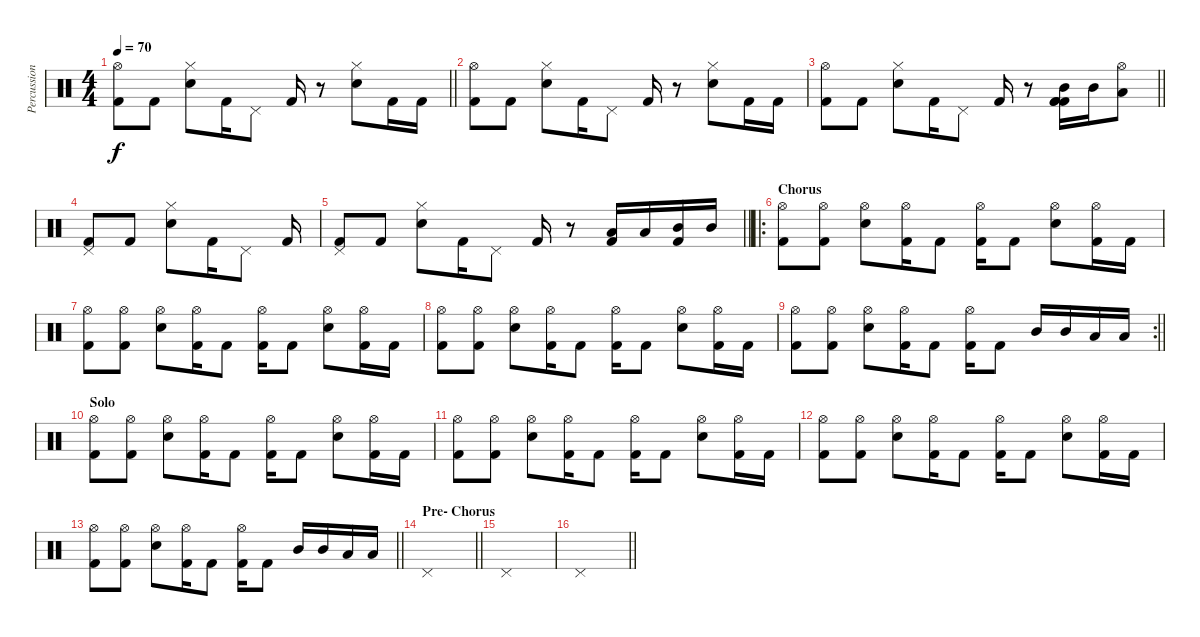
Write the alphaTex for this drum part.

\track ("Percussion" "Percussion") {instrument percussion}
\staff {score}
\articulation defaults
\ts (4 4)
\tempo 70
\clef neutral
\barLineRight lightlight
\ks c
("Kick (hit) 2" "Hi-Hat (open)").8{dy f} "Kick (hit) 2".8 ("Hi-Hat (closed)" "Electric Snare (hit)").8 "Kick (hit) 2".16 "Pedal Hi-Hat (hit)".8 "Kick (hit) 2".16 r.8 ("Hi-Hat (closed)" "Electric Snare (hit)").8 "Kick (hit) 2".16 "Kick (hit) 2".16 |
("Kick (hit) 2" "Hi-Hat (open)").8 "Kick (hit) 2".8 ("Hi-Hat (closed)" "Electric Snare (hit)").8 "Kick (hit) 2".16 "Pedal Hi-Hat (hit)".8 "Kick (hit) 2".16 r.8 ("Hi-Hat (closed)" "Electric Snare (hit)").8 "Kick (hit) 2".16 "Kick (hit) 2".16 |
\barLineRight lightlight
("Kick (hit) 2" "Hi-Hat (open)").8 "Kick (hit) 2".8 ("Hi-Hat (closed)" "Electric Snare (hit)").8 "Kick (hit) 2".16 "Pedal Hi-Hat (hit)".8 "Kick (hit) 2".16 r.8 ("Kick (hit) 2" "Kick (hit) 2" "Mid Tom (hit)" "Kick (hit) 2").16 "Mid Tom (hit)".16 ("Low Tom (hit)" "Hi-Hat (open)").8 |
("Kick (hit) 2" "Pedal Hi-Hat (hit)").8 "Kick (hit) 2".8 ("Hi-Hat (closed)" "Electric Snare (hit)").8 "Kick (hit) 2".16 "Pedal Hi-Hat (hit)".8 "Kick (hit) 2".16 |
\barLineRight lightlight
("Kick (hit) 2" "Pedal Hi-Hat (hit)").8 "Kick (hit) 2".8 ("Hi-Hat (closed)" "Electric Snare (hit)").8 "Kick (hit) 2".16 "Pedal Hi-Hat (hit)".8 "Kick (hit) 2".16 r.8 ("Low Tom (hit)" "Kick (hit) 2").16 "Low Tom (hit)".16 ("Mid Tom (hit)" "Kick (hit) 2").16 "Mid Tom (hit)".16 |
\ro
\section ("" "Chorus")
("Kick (hit) 2" "Hi-Hat (open)").8 ("Kick (hit) 2" "Hi-Hat (open)").8 ("Snare (hit) 2" "Hi-Hat (open)").8 ("Kick (hit) 2" "Hi-Hat (open)").16 "Kick (hit) 2".8 ("Kick (hit) 2" "Hi-Hat (open)").16 "Kick (hit) 2".8 ("Snare (hit) 2" "Hi-Hat (open)").8 ("Kick (hit) 2" "Hi-Hat (open)").16 "Kick (hit) 2".16 |
("Kick (hit) 2" "Hi-Hat (open)").8 ("Kick (hit) 2" "Hi-Hat (open)").8 ("Snare (hit) 2" "Hi-Hat (open)").8 ("Kick (hit) 2" "Hi-Hat (open)").16 "Kick (hit) 2".8 ("Kick (hit) 2" "Hi-Hat (open)").16 "Kick (hit) 2".8 ("Snare (hit) 2" "Hi-Hat (open)").8 ("Kick (hit) 2" "Hi-Hat (open)").16 "Kick (hit) 2".16 |
("Kick (hit) 2" "Hi-Hat (open)").8 ("Kick (hit) 2" "Hi-Hat (open)").8 ("Snare (hit) 2" "Hi-Hat (open)").8 ("Kick (hit) 2" "Hi-Hat (open)").16 "Kick (hit) 2".8 ("Kick (hit) 2" "Hi-Hat (open)").16 "Kick (hit) 2".8 ("Snare (hit) 2" "Hi-Hat (open)").8 ("Kick (hit) 2" "Hi-Hat (open)").16 "Kick (hit) 2".16 |
\rc 2
\barLineRight lightlight
("Kick (hit) 2" "Hi-Hat (open)").8 ("Kick (hit) 2" "Hi-Hat (open)").8 ("Snare (hit) 2" "Hi-Hat (open)").8 ("Kick (hit) 2" "Hi-Hat (open)").16 "Kick (hit) 2".8 ("Kick (hit) 2" "Hi-Hat (open)").16 "Kick (hit) 2".8 "Mid Tom (hit)".16 "Mid Tom (hit)".16 "Low Tom (hit)".16 "Low Tom (hit)".16 |
\section ("" "Solo")
("Kick (hit) 2" "Hi-Hat (open)").8 ("Kick (hit) 2" "Hi-Hat (open)").8 ("Snare (hit) 2" "Hi-Hat (open)").8 ("Kick (hit) 2" "Hi-Hat (open)").16 "Kick (hit) 2".8 ("Kick (hit) 2" "Hi-Hat (open)").16 "Kick (hit) 2".8 ("Snare (hit) 2" "Hi-Hat (open)").8 ("Kick (hit) 2" "Hi-Hat (open)").16 "Kick (hit) 2".16 |
("Kick (hit) 2" "Hi-Hat (open)").8 ("Kick (hit) 2" "Hi-Hat (open)").8 ("Snare (hit) 2" "Hi-Hat (open)").8 ("Kick (hit) 2" "Hi-Hat (open)").16 "Kick (hit) 2".8 ("Kick (hit) 2" "Hi-Hat (open)").16 "Kick (hit) 2".8 ("Snare (hit) 2" "Hi-Hat (open)").8 ("Kick (hit) 2" "Hi-Hat (open)").16 "Kick (hit) 2".16 |
("Kick (hit) 2" "Hi-Hat (open)").8 ("Kick (hit) 2" "Hi-Hat (open)").8 ("Snare (hit) 2" "Hi-Hat (open)").8 ("Kick (hit) 2" "Hi-Hat (open)").16 "Kick (hit) 2".8 ("Kick (hit) 2" "Hi-Hat (open)").16 "Kick (hit) 2".8 ("Snare (hit) 2" "Hi-Hat (open)").8 ("Kick (hit) 2" "Hi-Hat (open)").16 "Kick (hit) 2".16 |
\barLineRight lightlight
("Kick (hit) 2" "Hi-Hat (open)").8 ("Kick (hit) 2" "Hi-Hat (open)").8 ("Snare (hit) 2" "Hi-Hat (open)").8 ("Kick (hit) 2" "Hi-Hat (open)").16 "Kick (hit) 2".8 ("Kick (hit) 2" "Hi-Hat (open)").16 "Kick (hit) 2".8 "Mid Tom (hit)".16 "Mid Tom (hit)".16 "Low Tom (hit)".16 "Low Tom (hit)".16 |
\section ("" "Pre- Chorus")
\barLineRight lightlight "Pedal Hi-Hat (hit)".1
|
\section ("" "")
"Pedal Hi-Hat (hit)".1 |
\barLineRight lightlight "Pedal Hi-Hat (hit)".1
